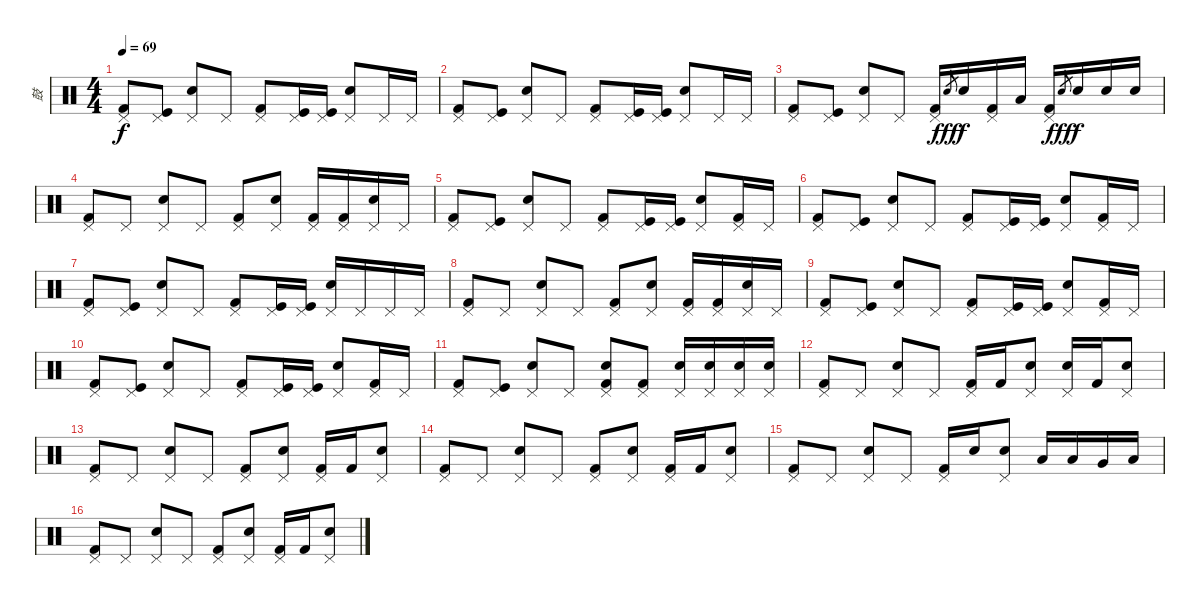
\track ("鼓" "鼓") {instrument percussion}
\staff {score}
\articulation defaults
\ts (4 4)
\tempo 69
\clef neutral
\ks c
("Pedal Hi-Hat (hit)" "Kick (hit) 2").8{dy f} ("Pedal Hi-Hat (hit)" "Kick (hit)").8 ("Pedal Hi-Hat (hit)" "Electric Snare (hit)").8 "Pedal Hi-Hat (hit)".8 ("Pedal Hi-Hat (hit)" "Kick (hit) 2").8 ("Pedal Hi-Hat (hit)" "Kick (hit)").16 ("Pedal Hi-Hat (hit)" "Kick (hit)").16 ("Pedal Hi-Hat (hit)" "Electric Snare (hit)").8 "Pedal Hi-Hat (hit)".16 "Pedal Hi-Hat (hit)".16 |
("Pedal Hi-Hat (hit)" "Kick (hit) 2").8 ("Pedal Hi-Hat (hit)" "Kick (hit)").8 ("Pedal Hi-Hat (hit)" "Electric Snare (hit)").8 "Pedal Hi-Hat (hit)".8 ("Pedal Hi-Hat (hit)" "Kick (hit) 2").8 ("Pedal Hi-Hat (hit)" "Kick (hit)").16 ("Pedal Hi-Hat (hit)" "Kick (hit)").16 ("Pedal Hi-Hat (hit)" "Electric Snare (hit)").8 "Pedal Hi-Hat (hit)".16 "Pedal Hi-Hat (hit)".16 |
("Pedal Hi-Hat (hit)" "Kick (hit) 2").8 ("Pedal Hi-Hat (hit)" "Kick (hit)").8 ("Pedal Hi-Hat (hit)" "Electric Snare (hit)").8 "Pedal Hi-Hat (hit)".8 ("Pedal Hi-Hat (hit)" "Kick (hit) 2").16 "Electric Snare (hit)".8{gr dy fff} "Electric Snare (hit)".16{dy f} ("Pedal Hi-Hat (hit)" "Kick (hit) 2").16 "Low Tom (hit)".16 ("Pedal Hi-Hat (hit)" "Kick (hit) 2").16 "Electric Snare (hit)".8{gr dy fff} "Electric Snare (hit)".16{dy f} "Electric Snare (hit)".16 "Electric Snare (hit)".16 |
("Pedal Hi-Hat (hit)" "Kick (hit) 2").8 "Pedal Hi-Hat (hit)".8 ("Pedal Hi-Hat (hit)" "Electric Snare (hit)").8 "Pedal Hi-Hat (hit)".8 ("Pedal Hi-Hat (hit)" "Kick (hit) 2").8 ("Pedal Hi-Hat (hit)" "Electric Snare (hit)").8 ("Pedal Hi-Hat (hit)" "Kick (hit) 2").16 ("Pedal Hi-Hat (hit)" "Kick (hit) 2").16 ("Pedal Hi-Hat (hit)" "Electric Snare (hit)").16 "Pedal Hi-Hat (hit)".16 |
("Pedal Hi-Hat (hit)" "Kick (hit) 2").8 ("Pedal Hi-Hat (hit)" "Kick (hit)").8 ("Pedal Hi-Hat (hit)" "Electric Snare (hit)").8 "Pedal Hi-Hat (hit)".8 ("Pedal Hi-Hat (hit)" "Kick (hit) 2").8 ("Pedal Hi-Hat (hit)" "Kick (hit)").16 ("Pedal Hi-Hat (hit)" "Kick (hit)").16 ("Pedal Hi-Hat (hit)" "Electric Snare (hit)").8 ("Pedal Hi-Hat (hit)" "Kick (hit) 2").16 "Pedal Hi-Hat (hit)".16 |
("Pedal Hi-Hat (hit)" "Kick (hit) 2").8 ("Pedal Hi-Hat (hit)" "Kick (hit)").8 ("Pedal Hi-Hat (hit)" "Electric Snare (hit)").8 "Pedal Hi-Hat (hit)".8 ("Pedal Hi-Hat (hit)" "Kick (hit) 2").8 ("Pedal Hi-Hat (hit)" "Kick (hit)").16 ("Pedal Hi-Hat (hit)" "Kick (hit)").16 ("Pedal Hi-Hat (hit)" "Electric Snare (hit)").8 ("Pedal Hi-Hat (hit)" "Kick (hit) 2").16 "Pedal Hi-Hat (hit)".16 |
("Pedal Hi-Hat (hit)" "Kick (hit) 2").8 ("Pedal Hi-Hat (hit)" "Kick (hit)").8 ("Pedal Hi-Hat (hit)" "Electric Snare (hit)").8 "Pedal Hi-Hat (hit)".8 ("Pedal Hi-Hat (hit)" "Kick (hit) 2").8 ("Pedal Hi-Hat (hit)" "Kick (hit)").16 ("Pedal Hi-Hat (hit)" "Kick (hit)").16 ("Pedal Hi-Hat (hit)" "Electric Snare (hit)").16 "Pedal Hi-Hat (hit)".16 "Pedal Hi-Hat (hit)".16 "Pedal Hi-Hat (hit)".16 |
("Pedal Hi-Hat (hit)" "Kick (hit) 2").8 "Pedal Hi-Hat (hit)".8 ("Pedal Hi-Hat (hit)" "Electric Snare (hit)").8 "Pedal Hi-Hat (hit)".8 ("Pedal Hi-Hat (hit)" "Kick (hit) 2").8 ("Pedal Hi-Hat (hit)" "Electric Snare (hit)").8 ("Pedal Hi-Hat (hit)" "Kick (hit) 2").16 ("Pedal Hi-Hat (hit)" "Kick (hit) 2").16 ("Pedal Hi-Hat (hit)" "Electric Snare (hit)").16 "Pedal Hi-Hat (hit)".16 |
("Pedal Hi-Hat (hit)" "Kick (hit) 2").8 ("Pedal Hi-Hat (hit)" "Kick (hit)").8 ("Pedal Hi-Hat (hit)" "Electric Snare (hit)").8 "Pedal Hi-Hat (hit)".8 ("Pedal Hi-Hat (hit)" "Kick (hit) 2").8 ("Pedal Hi-Hat (hit)" "Kick (hit)").16 ("Pedal Hi-Hat (hit)" "Kick (hit)").16 ("Pedal Hi-Hat (hit)" "Electric Snare (hit)").8 ("Pedal Hi-Hat (hit)" "Kick (hit) 2").16 "Pedal Hi-Hat (hit)".16 |
("Pedal Hi-Hat (hit)" "Kick (hit) 2").8 ("Pedal Hi-Hat (hit)" "Kick (hit)").8 ("Pedal Hi-Hat (hit)" "Electric Snare (hit)").8 "Pedal Hi-Hat (hit)".8 ("Pedal Hi-Hat (hit)" "Kick (hit) 2").8 ("Pedal Hi-Hat (hit)" "Kick (hit)").16 ("Pedal Hi-Hat (hit)" "Kick (hit)").16 ("Pedal Hi-Hat (hit)" "Electric Snare (hit)").8 ("Pedal Hi-Hat (hit)" "Kick (hit) 2").16 "Pedal Hi-Hat (hit)".16 |
("Pedal Hi-Hat (hit)" "Kick (hit) 2").8 ("Pedal Hi-Hat (hit)" "Kick (hit)").8 ("Pedal Hi-Hat (hit)" "Electric Snare (hit)").8 "Pedal Hi-Hat (hit)".8 ("Pedal Hi-Hat (hit)" "Electric Snare (hit)" "Kick (hit) 2").8 ("Pedal Hi-Hat (hit)" "Kick (hit) 2").8 ("Pedal Hi-Hat (hit)" "Electric Snare (hit)").16 ("Pedal Hi-Hat (hit)" "Electric Snare (hit)").16 ("Pedal Hi-Hat (hit)" "Electric Snare (hit)").16 ("Pedal Hi-Hat (hit)" "Electric Snare (hit)").16 |
("Pedal Hi-Hat (hit)" "Kick (hit) 2").8 "Pedal Hi-Hat (hit)".8 ("Pedal Hi-Hat (hit)" "Electric Snare (hit)").8 "Pedal Hi-Hat (hit)".8 ("Pedal Hi-Hat (hit)" "Kick (hit) 2").16 "Kick (hit) 2".16 ("Pedal Hi-Hat (hit)" "Electric Snare (hit)").8 ("Pedal Hi-Hat (hit)" "Electric Snare (hit)").16 "Kick (hit) 2".16 ("Pedal Hi-Hat (hit)" "Electric Snare (hit)").8 |
("Pedal Hi-Hat (hit)" "Kick (hit) 2").8 "Pedal Hi-Hat (hit)".8 ("Pedal Hi-Hat (hit)" "Electric Snare (hit)").8 "Pedal Hi-Hat (hit)".8 ("Pedal Hi-Hat (hit)" "Kick (hit) 2").8 ("Pedal Hi-Hat (hit)" "Electric Snare (hit)").8 ("Pedal Hi-Hat (hit)" "Kick (hit) 2").16 "Kick (hit) 2".16 ("Pedal Hi-Hat (hit)" "Electric Snare (hit)").8 |
("Pedal Hi-Hat (hit)" "Kick (hit) 2").8 "Pedal Hi-Hat (hit)".8 ("Pedal Hi-Hat (hit)" "Electric Snare (hit)").8 "Pedal Hi-Hat (hit)".8 ("Pedal Hi-Hat (hit)" "Kick (hit) 2").8 ("Pedal Hi-Hat (hit)" "Electric Snare (hit)").8 ("Pedal Hi-Hat (hit)" "Kick (hit) 2").16 "Kick (hit) 2".16 ("Pedal Hi-Hat (hit)" "Electric Snare (hit)").8 |
("Pedal Hi-Hat (hit)" "Kick (hit) 2").8 "Pedal Hi-Hat (hit)".8 ("Pedal Hi-Hat (hit)" "Electric Snare (hit)").8 "Pedal Hi-Hat (hit)".8 ("Pedal Hi-Hat (hit)" "Kick (hit) 2").16 "Electric Snare (hit)".16 ("Pedal Hi-Hat (hit)" "Electric Snare (hit)").8 "Low Tom (hit)".16 "Low Tom (hit)".16 "Very Low Tom (hit)".16 "Low Floor Tom (hit)".16 |
("Pedal Hi-Hat (hit)" "Kick (hit) 2").8 "Pedal Hi-Hat (hit)".8 ("Pedal Hi-Hat (hit)" "Electric Snare (hit)").8 "Pedal Hi-Hat (hit)".8 ("Pedal Hi-Hat (hit)" "Kick (hit) 2").8 ("Pedal Hi-Hat (hit)" "Electric Snare (hit)").8 ("Pedal Hi-Hat (hit)" "Kick (hit) 2").16 "Kick (hit) 2".16 ("Pedal Hi-Hat (hit)" "Electric Snare (hit)").8
